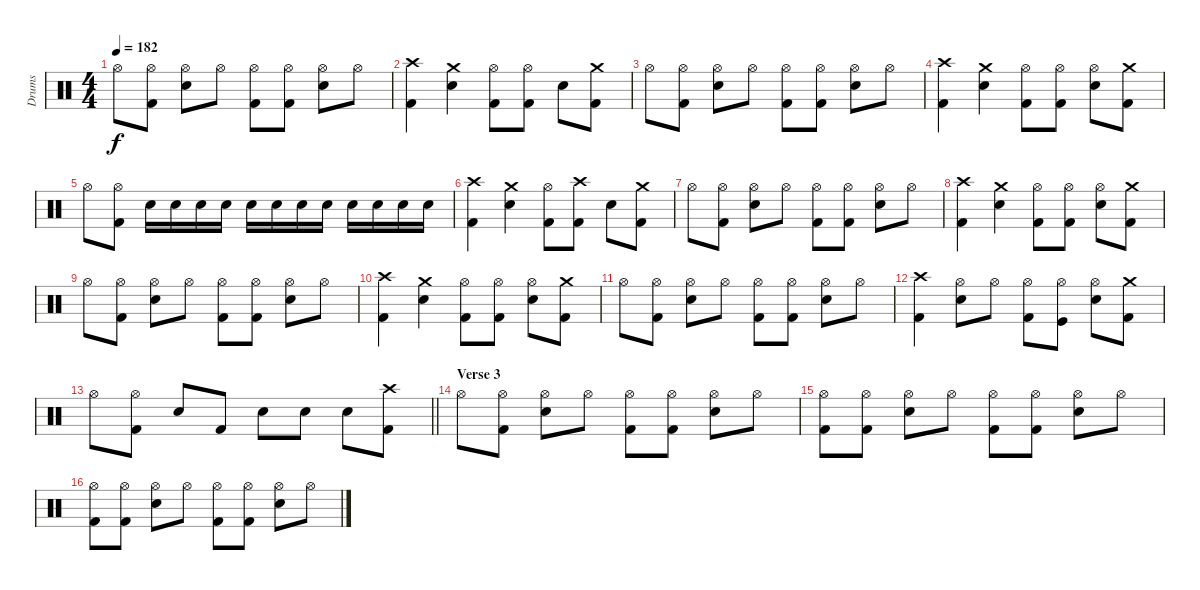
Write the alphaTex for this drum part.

\track ("Drums" "Drums") {instrument percussion}
\staff {score}
\articulation defaults
\ts (4 4)
\tempo 182
\clef neutral
\ks c "Hi-Hat (open)".8{dy f}
("Hi-Hat (open)" "Kick (hit) 2").8 ("Hi-Hat (open)" "Snare (hit) 2").8 "Hi-Hat (open)".8 ("Hi-Hat (open)" "Kick (hit) 2").8 ("Hi-Hat (open)" "Kick (hit) 2").8 ("Hi-Hat (open)" "Snare (hit) 2").8 "Hi-Hat (open)".8 |
("Crash high (hit)" "Kick (hit) 2").4 ("Crash medium (hit)" "Snare (hit) 2").4 ("Hi-Hat (open)" "Kick (hit) 2").8 ("Hi-Hat (open)" "Kick (hit) 2").8 "Snare (hit) 2".8 ("Crash medium (hit)" "Kick (hit) 2").8 |
"Hi-Hat (open)".8 ("Hi-Hat (open)" "Kick (hit) 2").8 ("Hi-Hat (open)" "Snare (hit) 2").8 "Hi-Hat (open)".8 ("Hi-Hat (open)" "Kick (hit) 2").8 ("Hi-Hat (open)" "Kick (hit) 2").8 ("Hi-Hat (open)" "Snare (hit) 2").8 "Hi-Hat (open)".8 |
("Crash high (hit)" "Kick (hit) 2").4 ("Crash medium (hit)" "Snare (hit) 2").4 ("Hi-Hat (open)" "Kick (hit) 2").8 ("Hi-Hat (open)" "Kick (hit) 2").8 ("Hi-Hat (open)" "Snare (hit) 2").8 ("Crash medium (hit)" "Kick (hit) 2").8 |
"Hi-Hat (open)".8 ("Hi-Hat (open)" "Kick (hit) 2").8 "Snare (hit) 2".16 "Snare (hit) 2".16 "Snare (hit) 2".16 "Snare (hit) 2".16 "Snare (hit) 2".16 "Snare (hit) 2".16 "Snare (hit) 2".16 "Snare (hit) 2".16 "Snare (hit) 2".16 "Snare (hit) 2".16 "Snare (hit) 2".16 "Snare (hit) 2".16 |
("Crash high (hit)" "Kick (hit) 2").4 ("Crash medium (hit)" "Snare (hit) 2").4 ("Hi-Hat (open)" "Kick (hit) 2").8 ("Crash high (hit)" "Kick (hit) 2").8 "Snare (hit) 2".8 ("Crash medium (hit)" "Kick (hit) 2").8 |
"Hi-Hat (open)".8 ("Hi-Hat (open)" "Kick (hit) 2").8 ("Hi-Hat (open)" "Snare (hit) 2").8 "Hi-Hat (open)".8 ("Hi-Hat (open)" "Kick (hit) 2").8 ("Hi-Hat (open)" "Kick (hit) 2").8 ("Hi-Hat (open)" "Snare (hit) 2").8 "Hi-Hat (open)".8 |
("Crash high (hit)" "Kick (hit) 2").4 ("Crash medium (hit)" "Snare (hit) 2").4 ("Hi-Hat (open)" "Kick (hit) 2").8 ("Hi-Hat (open)" "Kick (hit) 2").8 ("Hi-Hat (open)" "Snare (hit) 2").8 ("Crash medium (hit)" "Kick (hit) 2").8 |
"Hi-Hat (open)".8 ("Hi-Hat (open)" "Kick (hit) 2").8 ("Hi-Hat (open)" "Snare (hit) 2").8 "Hi-Hat (open)".8 ("Hi-Hat (open)" "Kick (hit) 2").8 ("Hi-Hat (open)" "Kick (hit) 2").8 ("Hi-Hat (open)" "Snare (hit) 2").8 "Hi-Hat (open)".8 |
("Crash high (hit)" "Kick (hit) 2").4 ("Crash medium (hit)" "Snare (hit) 2").4 ("Hi-Hat (open)" "Kick (hit) 2").8 ("Hi-Hat (open)" "Kick (hit) 2").8 ("Hi-Hat (open)" "Snare (hit) 2").8 ("Crash medium (hit)" "Kick (hit) 2").8 |
"Hi-Hat (open)".8 ("Hi-Hat (open)" "Kick (hit) 2").8 ("Hi-Hat (open)" "Snare (hit) 2").8 "Hi-Hat (open)".8 ("Hi-Hat (open)" "Kick (hit) 2").8 ("Hi-Hat (open)" "Kick (hit) 2").8 ("Hi-Hat (open)" "Snare (hit) 2").8 "Hi-Hat (open)".8 |
("Crash high (hit)" "Kick (hit) 2").4 ("Hi-Hat (open)" "Snare (hit) 2").8 "Hi-Hat (open)".8 ("Hi-Hat (open)" "Kick (hit) 2").8 ("Hi-Hat (open)" "Kick (hit)").8 ("Hi-Hat (open)" "Snare (hit) 2").8 ("Crash medium (hit)" "Kick (hit) 2").8 |
\barLineRight lightlight "Hi-Hat (open)".8
("Hi-Hat (open)" "Kick (hit) 2").8 "Snare (hit) 2".8 "Kick (hit) 2".8 "Snare (hit) 2".8 "Snare (hit) 2".8 "Snare (hit) 2".8 ("Crash high (hit)" "Kick (hit) 2").8 |
\section ("" "Verse 3")
"Hi-Hat (open)".8 ("Hi-Hat (open)" "Kick (hit) 2").8 ("Hi-Hat (open)" "Snare (hit) 2").8 "Hi-Hat (open)".8 ("Hi-Hat (open)" "Kick (hit) 2").8 ("Hi-Hat (open)" "Kick (hit) 2").8 ("Hi-Hat (open)" "Snare (hit) 2").8 "Hi-Hat (open)".8 |
("Hi-Hat (open)" "Kick (hit) 2").8 ("Hi-Hat (open)" "Kick (hit) 2").8 ("Hi-Hat (open)" "Snare (hit) 2").8 "Hi-Hat (open)".8 ("Hi-Hat (open)" "Kick (hit) 2").8 ("Hi-Hat (open)" "Kick (hit) 2").8 ("Hi-Hat (open)" "Snare (hit) 2").8 "Hi-Hat (open)".8 |
("Hi-Hat (open)" "Kick (hit) 2").8 ("Hi-Hat (open)" "Kick (hit) 2").8 ("Hi-Hat (open)" "Snare (hit) 2").8 "Hi-Hat (open)".8 ("Hi-Hat (open)" "Kick (hit) 2").8 ("Hi-Hat (open)" "Kick (hit) 2").8 ("Hi-Hat (open)" "Snare (hit) 2").8 "Hi-Hat (open)".8
